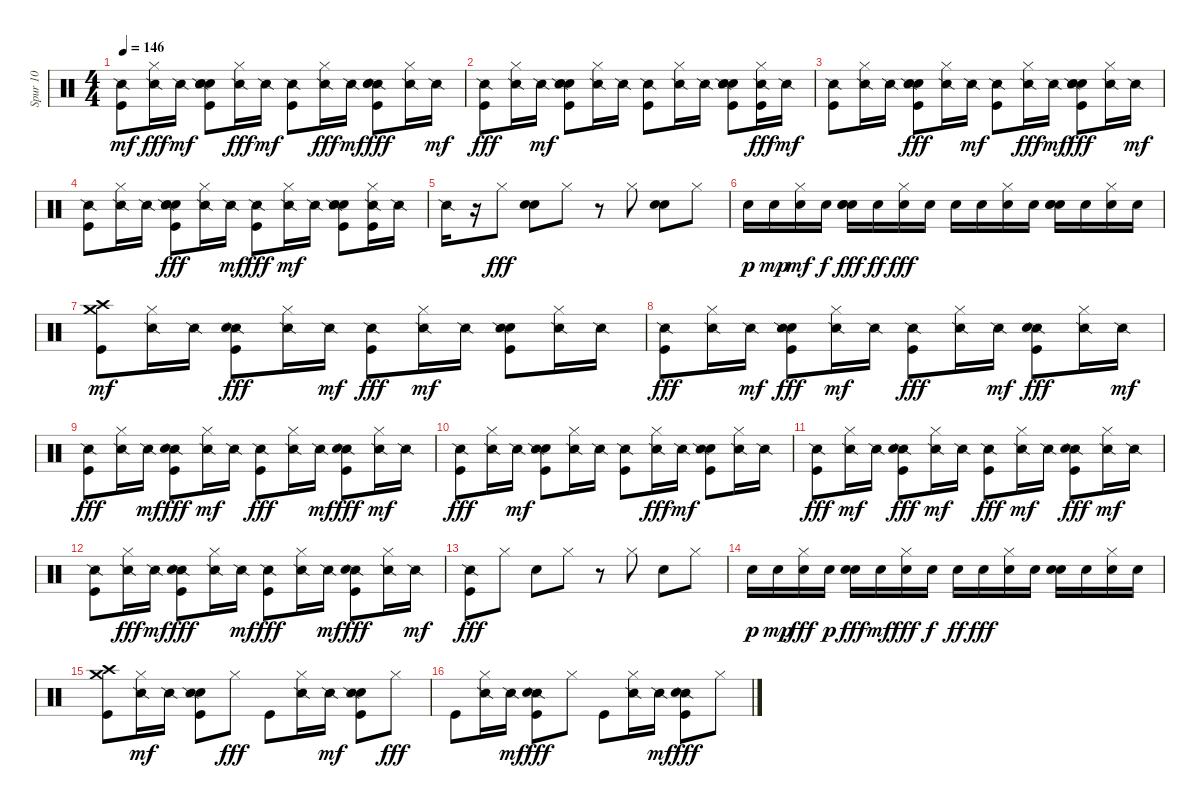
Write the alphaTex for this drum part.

\track ("Spur 10" "Spur 10") {instrument percussion}
\staff {score}
\articulation defaults
\ts (4 4)
\tempo 146
\clef neutral
\ks c
("Kick (hit)" "Snare (side stick) 2").8{dy mf} ("Snare (side stick) 2" "Hi-Hat (closed)").16{dy fff} "Snare (side stick) 2".16{dy mf} ("Hand Clap (hit)" "Kick (hit)" "Snare (side stick) 2" "Electric Snare (hit)").8 ("Snare (side stick) 2" "Hi-Hat (closed)").16{dy fff} "Snare (side stick) 2".16{dy mf} ("Kick (hit)" "Snare (side stick) 2").8 ("Snare (side stick) 2" "Hi-Hat (closed)").16{dy fff} "Snare (side stick) 2".16{dy mf} ("Kick (hit)" "Snare (side stick) 2" "Hand Clap (hit)" "Electric Snare (hit)").8{dy fff} ("Snare (side stick) 2" "Hi-Hat (closed)").16 "Snare (side stick) 2".16{dy mf} |
("Snare (side stick) 2" "Kick (hit)").8{dy fff} ("Snare (side stick) 2" "Hi-Hat (closed)").16 "Snare (side stick) 2".16{dy mf} ("Electric Snare (hit)" "Kick (hit)" "Hand Clap (hit)" "Snare (side stick) 2").8 ("Hi-Hat (closed)" "Snare (side stick) 2").16 "Snare (side stick) 2".16 ("Kick (hit)" "Snare (side stick) 2").8 ("Hi-Hat (closed)" "Snare (side stick) 2").16 "Snare (side stick) 2".16 ("Kick (hit)" "Hand Clap (hit)" "Snare (side stick) 2" "Electric Snare (hit)").8 ("Kick (hit)" "Snare (side stick) 2" "Hi-Hat (closed)").16{dy fff} "Snare (side stick) 2".16{dy mf} |
("Kick (hit)" "Snare (side stick) 2").8 ("Hi-Hat (closed)" "Snare (side stick) 2").16 "Snare (side stick) 2".16 ("Electric Snare (hit)" "Kick (hit)" "Snare (side stick) 2" "Hand Clap (hit)").8{dy fff} ("Snare (side stick) 2" "Hi-Hat (closed)").16 "Snare (side stick) 2".16{dy mf} ("Kick (hit)" "Snare (side stick) 2").8 ("Snare (side stick) 2" "Hi-Hat (closed)").16{dy fff} "Snare (side stick) 2".16{dy mf} ("Hand Clap (hit)" "Snare (side stick) 2" "Kick (hit)" "Electric Snare (hit)").8{dy fff} ("Snare (side stick) 2" "Hi-Hat (closed)").16 "Snare (side stick) 2".16{dy mf} |
("Kick (hit)" "Snare (side stick) 2").8 ("Hi-Hat (closed)" "Snare (side stick) 2").16 "Snare (side stick) 2".16 ("Hand Clap (hit)" "Snare (side stick) 2" "Electric Snare (hit)" "Kick (hit)").8{dy fff} ("Snare (side stick) 2" "Hi-Hat (closed)").16 "Snare (side stick) 2".16{dy mf} ("Snare (side stick) 2" "Kick (hit)").8{dy fff} ("Hi-Hat (closed)" "Snare (side stick) 2").16{dy mf} "Snare (side stick) 2".16 ("Kick (hit)" "Hand Clap (hit)" "Electric Snare (hit)" "Snare (side stick) 2").8 ("Kick (hit)" "Hi-Hat (closed)" "Snare (side stick) 2").16 "Snare (side stick) 2".16 |
"Snare (side stick) 2".16 r.16 "Hi-Hat (closed)".8{dy fff} ("Electric Snare (hit)" "Hand Clap (hit)").8 "Hi-Hat (closed)".8 r.8 "Hi-Hat (closed)".8 ("Hand Clap (hit)" "Electric Snare (hit)").8 "Hi-Hat (closed)".8 |
"Snare (hit) 2".16{dy p} "Snare (hit) 2".16{dy mp} ("Hi-Hat (closed)" "Snare (hit) 2").16{dy mf} "Snare (hit) 2".16{dy f} ("Hand Clap (hit)" "Electric Snare (hit)" "Snare (hit) 2").16{dy fff} "Snare (hit) 2".16{dy ff} ("Hi-Hat (closed)" "Snare (hit) 2").16{dy fff} "Snare (hit) 2".16 "Snare (hit) 2".16 "Snare (hit) 2".16 ("Hi-Hat (closed)" "Snare (hit) 2").16 "Snare (hit) 2".16 ("Hand Clap (hit)" "Snare (hit) 2" "Electric Snare (hit)").16 "Snare (hit) 2".16 ("Hi-Hat (closed)" "Snare (hit) 2").16 "Snare (hit) 2".16 |
("Crash high (hit)" "Kick (hit)" "Crash medium (hit)").8{dy mf} ("Hi-Hat (closed)" "Snare (side stick) 2").16 "Snare (side stick) 2".16 ("Snare (side stick) 2" "Hand Clap (hit)" "Kick (hit)").8{dy fff} ("Snare (side stick) 2" "Hi-Hat (closed)").16 "Snare (side stick) 2".16{dy mf} ("Snare (side stick) 2" "Kick (hit)").8{dy fff} ("Hi-Hat (closed)" "Snare (side stick) 2").16{dy mf} "Snare (side stick) 2".16 ("Kick (hit)" "Hand Clap (hit)" "Snare (side stick) 2").8 ("Hi-Hat (closed)" "Snare (side stick) 2").16 "Snare (side stick) 2".16 |
("Snare (side stick) 2" "Kick (hit)").8{dy fff} ("Snare (side stick) 2" "Hi-Hat (closed)").16 "Snare (side stick) 2".16{dy mf} ("Hand Clap (hit)" "Snare (side stick) 2" "Kick (hit)").8{dy fff} ("Hi-Hat (closed)" "Snare (side stick) 2").16{dy mf} "Snare (side stick) 2".16 ("Snare (side stick) 2" "Kick (hit)").8{dy fff} ("Snare (side stick) 2" "Hi-Hat (closed)").16 "Snare (side stick) 2".16{dy mf} ("Kick (hit)" "Snare (side stick) 2" "Hand Clap (hit)").8{dy fff} ("Snare (side stick) 2" "Hi-Hat (closed)").16 "Snare (side stick) 2".16{dy mf} |
("Snare (side stick) 2" "Kick (hit)").8{dy fff} ("Snare (side stick) 2" "Hi-Hat (closed)").16 "Snare (side stick) 2".16{dy mf} ("Snare (side stick) 2" "Kick (hit)" "Hand Clap (hit)").8{dy fff} ("Hi-Hat (closed)" "Snare (side stick) 2").16{dy mf} "Snare (side stick) 2".16 ("Snare (side stick) 2" "Kick (hit)").8{dy fff} ("Snare (side stick) 2" "Hi-Hat (closed)").16 "Snare (side stick) 2".16{dy mf} ("Snare (side stick) 2" "Hand Clap (hit)" "Kick (hit)").8{dy fff} ("Hi-Hat (closed)" "Snare (side stick) 2").16{dy mf} "Snare (side stick) 2".16 |
("Snare (side stick) 2" "Kick (hit)").8{dy fff} ("Snare (side stick) 2" "Hi-Hat (closed)").16 "Snare (side stick) 2".16{dy mf} ("Hand Clap (hit)" "Kick (hit)" "Snare (side stick) 2").8 ("Hi-Hat (closed)" "Snare (side stick) 2").16 "Snare (side stick) 2".16 ("Kick (hit)" "Snare (side stick) 2").8 ("Snare (side stick) 2" "Hi-Hat (closed)").16{dy fff} "Snare (side stick) 2".16{dy mf} ("Kick (hit)" "Hand Clap (hit)" "Snare (side stick) 2").8 ("Hi-Hat (closed)" "Snare (side stick) 2").16 "Snare (side stick) 2".16 |
("Snare (side stick) 2" "Kick (hit)").8{dy fff} ("Hi-Hat (closed)" "Snare (side stick) 2").16{dy mf} "Snare (side stick) 2".16 ("Kick (hit)" "Snare (side stick) 2" "Hand Clap (hit)").8{dy fff} ("Hi-Hat (closed)" "Snare (side stick) 2").16{dy mf} "Snare (side stick) 2".16 ("Snare (side stick) 2" "Kick (hit)").8{dy fff} ("Hi-Hat (closed)" "Snare (side stick) 2").16{dy mf} "Snare (side stick) 2".16 ("Snare (side stick) 2" "Kick (hit)" "Hand Clap (hit)").8{dy fff} ("Hi-Hat (closed)" "Snare (side stick) 2").16{dy mf} "Snare (side stick) 2".16 |
("Kick (hit)" "Snare (side stick) 2").8 ("Snare (side stick) 2" "Hi-Hat (closed)").16{dy fff} "Snare (side stick) 2".16{dy mf} ("Snare (side stick) 2" "Hand Clap (hit)" "Kick (hit)").8{dy fff} ("Snare (side stick) 2" "Hi-Hat (closed)").16 "Snare (side stick) 2".16{dy mf} ("Snare (side stick) 2" "Kick (hit)").8{dy fff} ("Snare (side stick) 2" "Hi-Hat (closed)").16 "Snare (side stick) 2".16{dy mf} ("Kick (hit)" "Snare (side stick) 2" "Hand Clap (hit)").8{dy fff} ("Snare (side stick) 2" "Hi-Hat (closed)").16 "Snare (side stick) 2".16{dy mf} |
("Snare (side stick) 2" "Kick (hit)").8{dy fff} "Hi-Hat (closed)".8 "Hand Clap (hit)".8 "Hi-Hat (closed)".8 r.8 "Hi-Hat (closed)".8 "Hand Clap (hit)".8 "Hi-Hat (closed)".8 |
"Snare (hit) 2".16{dy p} "Snare (hit) 2".16{dy mp} ("Snare (hit) 2" "Hi-Hat (closed)").16{dy fff} "Snare (hit) 2".16{dy p} ("Snare (hit) 2" "Hand Clap (hit)").16{dy fff} "Snare (hit) 2".16{dy mf} ("Hi-Hat (closed)" "Snare (hit) 2").16{dy fff} "Snare (hit) 2".16{dy f} "Snare (hit) 2".16{dy ff} "Snare (hit) 2".16{dy fff} ("Hi-Hat (closed)" "Snare (hit) 2").16 "Snare (hit) 2".16 ("Snare (hit) 2" "Hand Clap (hit)").16 "Snare (hit) 2".16 ("Hi-Hat (closed)" "Snare (hit) 2").16 "Snare (hit) 2".16 |
("Kick (hit)" "Crash high (hit)" "Crash medium (hit)").8 ("Hi-Hat (closed)" "Snare (side stick) 2").16{dy mf} "Snare (side stick) 2".16 ("Kick (hit)" "Hand Clap (hit)" "Snare (side stick) 2").8 "Hi-Hat (closed)".8{dy fff} "Kick (hit)".8 ("Snare (side stick) 2" "Hi-Hat (closed)").16 "Snare (side stick) 2".16{dy mf} ("Kick (hit)" "Hand Clap (hit)" "Snare (side stick) 2").8 "Hi-Hat (closed)".8{dy fff} |
"Kick (hit)".8 ("Snare (side stick) 2" "Hi-Hat (closed)").16 "Snare (side stick) 2".16{dy mf} ("Snare (side stick) 2" "Hand Clap (hit)" "Kick (hit)").8{dy fff} "Hi-Hat (closed)".8 "Kick (hit)".8 ("Snare (side stick) 2" "Hi-Hat (closed)").16 "Snare (side stick) 2".16{dy mf} ("Snare (side stick) 2" "Kick (hit)" "Hand Clap (hit)").8{dy fff} "Hi-Hat (closed)".8
